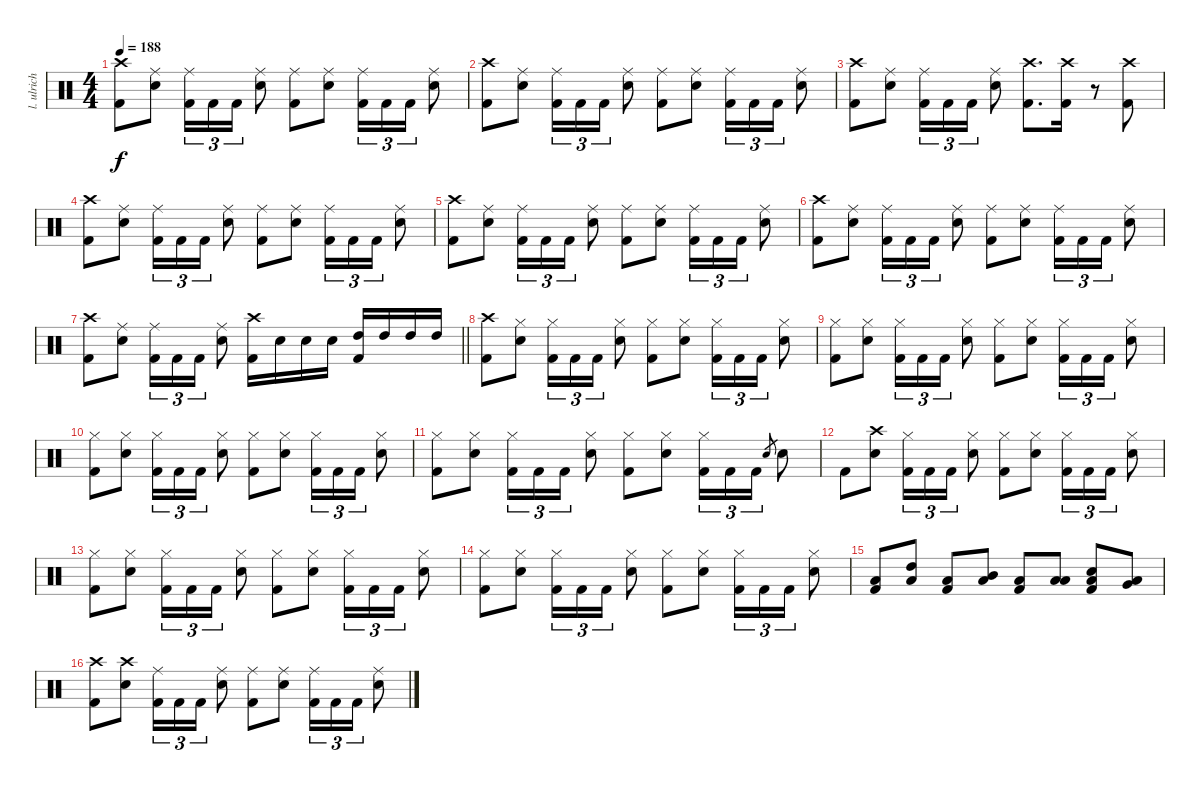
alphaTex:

\track ("l. ulrich - drums" "l. ulrich ") {instrument percussion}
\staff {score}
\articulation defaults
\ts (4 4)
\tempo 188
\clef neutral
\ks c
("Crash high (hit)" "Kick (hit) 2").8{dy f} ("Ride (middle)" "Snare (hit) 2").8 ("Ride (middle)" "Kick (hit) 2").16{tu (3 2)} "Kick (hit) 2".16{tu (3 2)} "Kick (hit) 2".16{tu (3 2)} ("Ride (middle)" "Snare (hit) 2").8 ("Ride (middle)" "Kick (hit) 2").8 ("Ride (middle)" "Snare (hit) 2").8 ("Ride (middle)" "Kick (hit) 2").16{tu (3 2)} "Kick (hit) 2".16{tu (3 2)} "Kick (hit) 2".16{tu (3 2)} ("Ride (middle)" "Snare (hit) 2").8 |
("Crash high (hit)" "Kick (hit) 2").8 ("Ride (middle)" "Snare (hit) 2").8 ("Ride (middle)" "Kick (hit) 2").16{tu (3 2)} "Kick (hit) 2".16{tu (3 2)} "Kick (hit) 2".16{tu (3 2)} ("Ride (middle)" "Snare (hit) 2").8 ("Ride (middle)" "Kick (hit) 2").8 ("Ride (middle)" "Snare (hit) 2").8 ("Ride (middle)" "Kick (hit) 2").16{tu (3 2)} "Kick (hit) 2".16{tu (3 2)} "Kick (hit) 2".16{tu (3 2)} ("Ride (middle)" "Snare (hit) 2").8 |
("Crash high (hit)" "Kick (hit) 2").8 ("Ride (middle)" "Snare (hit) 2").8 ("Ride (middle)" "Kick (hit) 2").16{tu (3 2)} "Kick (hit) 2".16{tu (3 2)} "Kick (hit) 2".16{tu (3 2)} ("Ride (middle)" "Snare (hit) 2").8 ("Crash high (hit)" "Kick (hit) 2").8{d} ("Crash high (hit)" "Kick (hit) 2").16 r.8 ("Crash high (hit)" "Kick (hit) 2").8 |
("Crash high (hit)" "Kick (hit) 2").8 ("Ride (middle)" "Snare (hit) 2").8 ("Ride (middle)" "Kick (hit) 2").16{tu (3 2)} "Kick (hit) 2".16{tu (3 2)} "Kick (hit) 2".16{tu (3 2)} ("Ride (middle)" "Snare (hit) 2").8 ("Ride (middle)" "Kick (hit) 2").8 ("Ride (middle)" "Snare (hit) 2").8 ("Ride (middle)" "Kick (hit) 2").16{tu (3 2)} "Kick (hit) 2".16{tu (3 2)} "Kick (hit) 2".16{tu (3 2)} ("Ride (middle)" "Snare (hit) 2").8 |
("Crash high (hit)" "Kick (hit) 2").8 ("Ride (middle)" "Snare (hit) 2").8 ("Ride (middle)" "Kick (hit) 2").16{tu (3 2)} "Kick (hit) 2".16{tu (3 2)} "Kick (hit) 2".16{tu (3 2)} ("Ride (middle)" "Snare (hit) 2").8 ("Ride (middle)" "Kick (hit) 2").8 ("Ride (middle)" "Snare (hit) 2").8 ("Ride (middle)" "Kick (hit) 2").16{tu (3 2)} "Kick (hit) 2".16{tu (3 2)} "Kick (hit) 2".16{tu (3 2)} ("Ride (middle)" "Snare (hit) 2").8 |
("Crash high (hit)" "Kick (hit) 2").8 ("Ride (middle)" "Snare (hit) 2").8 ("Ride (middle)" "Kick (hit) 2").16{tu (3 2)} "Kick (hit) 2".16{tu (3 2)} "Kick (hit) 2".16{tu (3 2)} ("Ride (middle)" "Snare (hit) 2").8 ("Ride (middle)" "Kick (hit) 2").8 ("Ride (middle)" "Snare (hit) 2").8 ("Ride (middle)" "Kick (hit) 2").16{tu (3 2)} "Kick (hit) 2".16{tu (3 2)} "Kick (hit) 2".16{tu (3 2)} ("Ride (middle)" "Snare (hit) 2").8 |
\barLineRight lightlight
("Crash high (hit)" "Kick (hit) 2").8 ("Ride (middle)" "Snare (hit) 2").8 ("Ride (middle)" "Kick (hit) 2").16{tu (3 2)} "Kick (hit) 2".16{tu (3 2)} "Kick (hit) 2".16{tu (3 2)} ("Ride (middle)" "Snare (hit) 2").8 ("Crash high (hit)" "Kick (hit) 2").16 "Snare (hit) 2".16 "Snare (hit) 2".16 "Snare (hit) 2".16 ("High Tom (hit)" "Kick (hit) 2").16 "High Tom (hit)".16 "High Tom (hit)".16 "High Tom (hit)".16 |
("Crash high (hit)" "Kick (hit) 2").8 ("Hi-Hat (closed)" "Snare (hit) 2").8 ("Hi-Hat (closed)" "Kick (hit) 2").16{tu (3 2)} "Kick (hit) 2".16{tu (3 2)} "Kick (hit) 2".16{tu (3 2)} ("Hi-Hat (closed)" "Snare (hit) 2").8 ("Hi-Hat (closed)" "Kick (hit) 2").8 ("Hi-Hat (closed)" "Snare (hit) 2").8 ("Hi-Hat (closed)" "Kick (hit) 2").16{tu (3 2)} "Kick (hit) 2".16{tu (3 2)} "Kick (hit) 2".16{tu (3 2)} ("Hi-Hat (closed)" "Snare (hit) 2").8 |
("Hi-Hat (closed)" "Kick (hit) 2").8 ("Hi-Hat (closed)" "Snare (hit) 2").8 ("Hi-Hat (closed)" "Kick (hit) 2").16{tu (3 2)} "Kick (hit) 2".16{tu (3 2)} "Kick (hit) 2".16{tu (3 2)} ("Hi-Hat (closed)" "Snare (hit) 2").8 ("Hi-Hat (closed)" "Kick (hit) 2").8 ("Hi-Hat (closed)" "Snare (hit) 2").8 ("Hi-Hat (closed)" "Kick (hit) 2").16{tu (3 2)} "Kick (hit) 2".16{tu (3 2)} "Kick (hit) 2".16{tu (3 2)} ("Hi-Hat (closed)" "Snare (hit) 2").8 |
("Hi-Hat (closed)" "Kick (hit) 2").8 ("Hi-Hat (closed)" "Snare (hit) 2").8 ("Hi-Hat (closed)" "Kick (hit) 2").16{tu (3 2)} "Kick (hit) 2".16{tu (3 2)} "Kick (hit) 2".16{tu (3 2)} ("Hi-Hat (closed)" "Snare (hit) 2").8 ("Hi-Hat (closed)" "Kick (hit) 2").8 ("Hi-Hat (closed)" "Snare (hit) 2").8 ("Hi-Hat (closed)" "Kick (hit) 2").16{tu (3 2)} "Kick (hit) 2".16{tu (3 2)} "Kick (hit) 2".16{tu (3 2)} ("Hi-Hat (closed)" "Snare (hit) 2").8 |
("Hi-Hat (closed)" "Kick (hit) 2").8 ("Hi-Hat (closed)" "Snare (hit) 2").8 ("Hi-Hat (closed)" "Kick (hit) 2").16{tu (3 2)} "Kick (hit) 2".16{tu (3 2)} "Kick (hit) 2".16{tu (3 2)} ("Hi-Hat (closed)" "Snare (hit) 2").8 ("Hi-Hat (closed)" "Kick (hit) 2").8 ("Hi-Hat (closed)" "Snare (hit) 2").8 ("Hi-Hat (closed)" "Kick (hit) 2").16{tu (3 2)} "Kick (hit) 2".16{tu (3 2)} "Kick (hit) 2".16{tu (3 2)} "Snare (hit) 2".8{gr} "Snare (hit) 2".8 |
"Kick (hit) 2".8 ("Crash high (hit)" "Snare (hit) 2").8 ("Hi-Hat (closed)" "Kick (hit) 2").16{tu (3 2)} "Kick (hit) 2".16{tu (3 2)} "Kick (hit) 2".16{tu (3 2)} ("Hi-Hat (closed)" "Snare (hit) 2").8 ("Hi-Hat (closed)" "Kick (hit) 2").8 ("Hi-Hat (closed)" "Snare (hit) 2").8 ("Hi-Hat (closed)" "Kick (hit) 2").16{tu (3 2)} "Kick (hit) 2".16{tu (3 2)} "Kick (hit) 2".16{tu (3 2)} ("Hi-Hat (closed)" "Snare (hit) 2").8 |
("Hi-Hat (closed)" "Kick (hit) 2").8 ("Hi-Hat (closed)" "Snare (hit) 2").8 ("Hi-Hat (closed)" "Kick (hit) 2").16{tu (3 2)} "Kick (hit) 2".16{tu (3 2)} "Kick (hit) 2".16{tu (3 2)} ("Hi-Hat (closed)" "Snare (hit) 2").8 ("Hi-Hat (closed)" "Kick (hit) 2").8 ("Hi-Hat (closed)" "Snare (hit) 2").8 ("Hi-Hat (closed)" "Kick (hit) 2").16{tu (3 2)} "Kick (hit) 2".16{tu (3 2)} "Kick (hit) 2".16{tu (3 2)} ("Hi-Hat (closed)" "Snare (hit) 2").8 |
("Hi-Hat (closed)" "Kick (hit) 2").8 ("Hi-Hat (closed)" "Snare (hit) 2").8 ("Hi-Hat (closed)" "Kick (hit) 2").16{tu (3 2)} "Kick (hit) 2".16{tu (3 2)} "Kick (hit) 2".16{tu (3 2)} ("Hi-Hat (closed)" "Snare (hit) 2").8 ("Hi-Hat (closed)" "Kick (hit) 2").8 ("Hi-Hat (closed)" "Snare (hit) 2").8 ("Hi-Hat (closed)" "Kick (hit) 2").16{tu (3 2)} "Kick (hit) 2".16{tu (3 2)} "Kick (hit) 2".16{tu (3 2)} ("Hi-Hat (closed)" "Snare (hit) 2").8 |
("Low Floor Tom (hit)" "Kick (hit) 2").8 ("High Tom (hit)" "Low Floor Tom (hit)").8 ("Low Floor Tom (hit)" "Kick (hit) 2").8 ("Mid Tom (hit)" "Low Floor Tom (hit)").8 ("Low Floor Tom (hit)" "Kick (hit) 2").8 ("Low Tom (hit)" "Low Floor Tom (hit)").8 ("Snare (hit) 2" "Low Floor Tom (hit)" "Kick (hit) 2").8 ("Very Low Tom (hit)" "Low Floor Tom (hit)").8 |
("Crash high (hit)" "Kick (hit) 2").8 ("Crash high (hit)" "Snare (hit) 2").8 ("Ride (middle)" "Kick (hit) 2").16{tu (3 2)} "Kick (hit) 2".16{tu (3 2)} "Kick (hit) 2".16{tu (3 2)} ("Ride (middle)" "Snare (hit) 2").8 ("Ride (middle)" "Kick (hit) 2").8 ("Ride (middle)" "Snare (hit) 2").8 ("Ride (middle)" "Kick (hit) 2").16{tu (3 2)} "Kick (hit) 2".16{tu (3 2)} "Kick (hit) 2".16{tu (3 2)} ("Ride (middle)" "Snare (hit) 2").8
